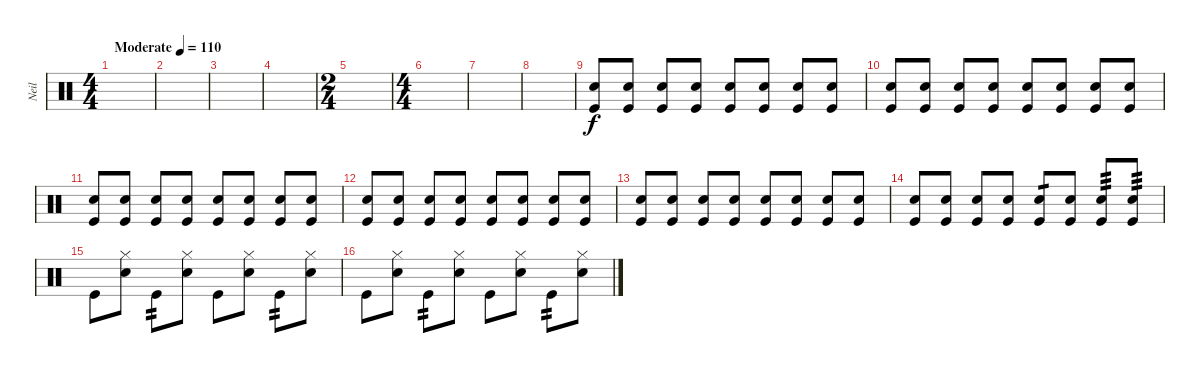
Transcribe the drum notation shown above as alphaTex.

\track ("Neil" "Neil") {instrument percussion}
\staff {score}
\articulation defaults
\ts (4 4)
\tempo (110 "Moderate")
\clef neutral
\ks c
|
|
|
|
\ts (2 4)
|
\ts (4 4)
|
|
|
("Snare (hit) 2" "Kick (hit)").8 ("Snare (hit) 2" "Kick (hit)").8 ("Snare (hit) 2" "Kick (hit)").8 ("Snare (hit) 2" "Kick (hit)").8 ("Snare (hit) 2" "Kick (hit)").8 ("Snare (hit) 2" "Kick (hit)").8 ("Snare (hit) 2" "Kick (hit)").8 ("Snare (hit) 2" "Kick (hit)").8 |
("Snare (hit) 2" "Kick (hit)").8 ("Snare (hit) 2" "Kick (hit)").8 ("Snare (hit) 2" "Kick (hit)").8 ("Snare (hit) 2" "Kick (hit)").8 ("Snare (hit) 2" "Kick (hit)").8 ("Snare (hit) 2" "Kick (hit)").8 ("Snare (hit) 2" "Kick (hit)").8 ("Snare (hit) 2" "Kick (hit)").8 |
("Snare (hit) 2" "Kick (hit)").8 ("Snare (hit) 2" "Kick (hit)").8 ("Snare (hit) 2" "Kick (hit)").8 ("Snare (hit) 2" "Kick (hit)").8 ("Snare (hit) 2" "Kick (hit)").8 ("Snare (hit) 2" "Kick (hit)").8 ("Snare (hit) 2" "Kick (hit)").8 ("Snare (hit) 2" "Kick (hit)").8 |
("Snare (hit) 2" "Kick (hit)").8 ("Snare (hit) 2" "Kick (hit)").8 ("Snare (hit) 2" "Kick (hit)").8 ("Snare (hit) 2" "Kick (hit)").8 ("Snare (hit) 2" "Kick (hit)").8 ("Snare (hit) 2" "Kick (hit)").8 ("Snare (hit) 2" "Kick (hit)").8 ("Snare (hit) 2" "Kick (hit)").8 |
("Snare (hit) 2" "Kick (hit)").8 ("Snare (hit) 2" "Kick (hit)").8 ("Snare (hit) 2" "Kick (hit)").8 ("Snare (hit) 2" "Kick (hit)").8 ("Snare (hit) 2" "Kick (hit)").8 ("Snare (hit) 2" "Kick (hit)").8 ("Snare (hit) 2" "Kick (hit)").8 ("Snare (hit) 2" "Kick (hit)").8 |
("Snare (hit) 2" "Kick (hit)").8 ("Snare (hit) 2" "Kick (hit)").8 ("Snare (hit) 2" "Kick (hit)").8 ("Snare (hit) 2" "Kick (hit)").8 ("Snare (hit) 2" "Kick (hit)").8{tp 1} ("Snare (hit) 2" "Kick (hit)").8 ("Snare (hit) 2" "Kick (hit)").8{tp 3} ("Snare (hit) 2" "Kick (hit)").8{tp 3} |
"Kick (hit)".8 ("Hi-Hat (closed)" "Snare (hit) 2").8 "Kick (hit)".8{tp 2} ("Hi-Hat (closed)" "Snare (hit) 2").8 "Kick (hit)".8 ("Hi-Hat (closed)" "Snare (hit) 2").8 "Kick (hit)".8{tp 2} ("Hi-Hat (closed)" "Snare (hit) 2").8 |
"Kick (hit)".8 ("Hi-Hat (closed)" "Snare (hit) 2").8 "Kick (hit)".8{tp 2} ("Hi-Hat (closed)" "Snare (hit) 2").8 "Kick (hit)".8 ("Hi-Hat (closed)" "Snare (hit) 2").8 "Kick (hit)".8{tp 2} ("Hi-Hat (closed)" "Snare (hit) 2").8
